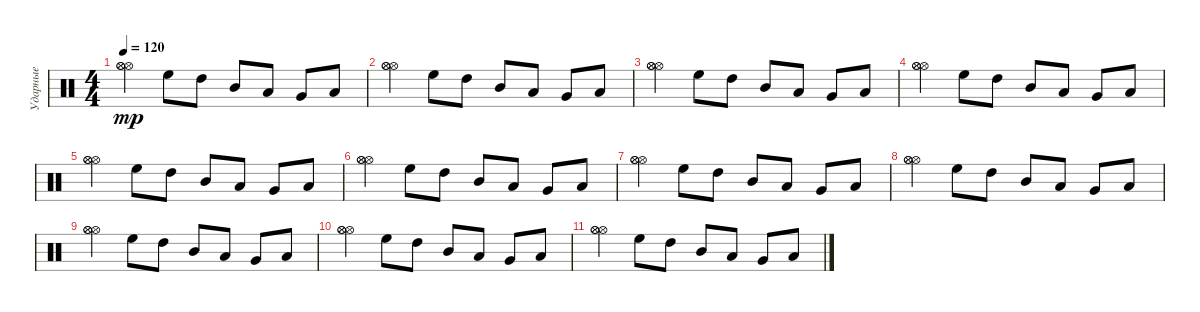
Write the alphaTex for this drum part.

\track ("Ударные" "Ударные") {instrument percussion}
\staff {score}
\articulation defaults
\ts (4 4)
\tempo 120
\clef neutral
\ks c
("Hi-Hat (open)" "Hi-Hat (open)" "Hi-Hat (open)").4{dy mp} "High Floor Tom (hit)".8 "High Tom (hit)".8 "Mid Tom (hit)".8 "Low Tom (hit)".8 "Very Low Tom (hit)".8 "Low Floor Tom (hit)".8 |
("Hi-Hat (open)" "Hi-Hat (open)" "Hi-Hat (open)").4 "High Floor Tom (hit)".8 "High Tom (hit)".8 "Mid Tom (hit)".8 "Low Tom (hit)".8 "Very Low Tom (hit)".8 "Low Floor Tom (hit)".8 |
("Hi-Hat (open)" "Hi-Hat (open)" "Hi-Hat (open)").4 "High Floor Tom (hit)".8 "High Tom (hit)".8 "Mid Tom (hit)".8 "Low Tom (hit)".8 "Very Low Tom (hit)".8 "Low Floor Tom (hit)".8 |
("Hi-Hat (open)" "Hi-Hat (open)" "Hi-Hat (open)").4 "High Floor Tom (hit)".8 "High Tom (hit)".8 "Mid Tom (hit)".8 "Low Tom (hit)".8 "Very Low Tom (hit)".8 "Low Floor Tom (hit)".8 |
("Hi-Hat (open)" "Hi-Hat (open)" "Hi-Hat (open)").4 "High Floor Tom (hit)".8 "High Tom (hit)".8 "Mid Tom (hit)".8 "Low Tom (hit)".8 "Very Low Tom (hit)".8 "Low Floor Tom (hit)".8 |
("Hi-Hat (open)" "Hi-Hat (open)" "Hi-Hat (open)").4 "High Floor Tom (hit)".8 "High Tom (hit)".8 "Mid Tom (hit)".8 "Low Tom (hit)".8 "Very Low Tom (hit)".8 "Low Floor Tom (hit)".8 |
("Hi-Hat (open)" "Hi-Hat (open)" "Hi-Hat (open)").4 "High Floor Tom (hit)".8 "High Tom (hit)".8 "Mid Tom (hit)".8 "Low Tom (hit)".8 "Very Low Tom (hit)".8 "Low Floor Tom (hit)".8 |
("Hi-Hat (open)" "Hi-Hat (open)" "Hi-Hat (open)").4 "High Floor Tom (hit)".8 "High Tom (hit)".8 "Mid Tom (hit)".8 "Low Tom (hit)".8 "Very Low Tom (hit)".8 "Low Floor Tom (hit)".8 |
("Hi-Hat (open)" "Hi-Hat (open)" "Hi-Hat (open)").4 "High Floor Tom (hit)".8 "High Tom (hit)".8 "Mid Tom (hit)".8 "Low Tom (hit)".8 "Very Low Tom (hit)".8 "Low Floor Tom (hit)".8 |
("Hi-Hat (open)" "Hi-Hat (open)" "Hi-Hat (open)").4 "High Floor Tom (hit)".8 "High Tom (hit)".8 "Mid Tom (hit)".8 "Low Tom (hit)".8 "Very Low Tom (hit)".8 "Low Floor Tom (hit)".8 |
("Hi-Hat (open)" "Hi-Hat (open)" "Hi-Hat (open)").4 "High Floor Tom (hit)".8 "High Tom (hit)".8 "Mid Tom (hit)".8 "Low Tom (hit)".8 "Very Low Tom (hit)".8 "Low Floor Tom (hit)".8
